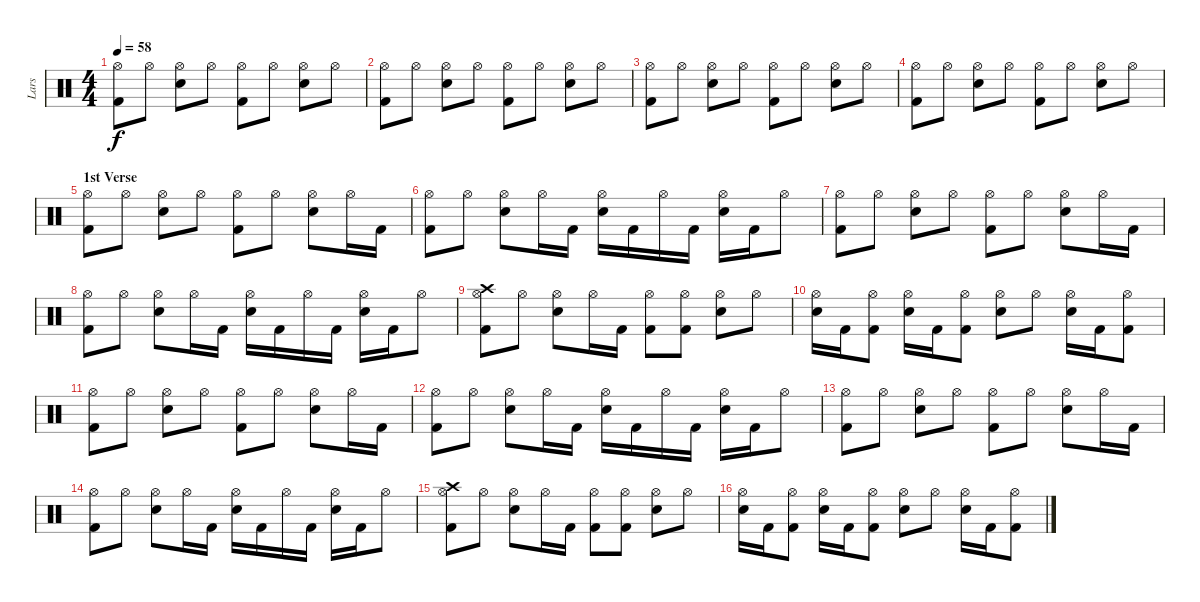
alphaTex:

\track ("Lars " "Lars ") {instrument percussion}
\staff {score}
\articulation defaults
\ts (4 4)
\tempo 58
\clef neutral
\ks c
("Kick (hit) 2" "Hi-Hat (open)").8{dy f} "Hi-Hat (open)".8 ("Snare (hit) 2" "Hi-Hat (open)").8 "Hi-Hat (open)".8 ("Kick (hit) 2" "Hi-Hat (open)").8 "Hi-Hat (open)".8 ("Snare (hit) 2" "Hi-Hat (open)").8 "Hi-Hat (open)".8 |
("Kick (hit) 2" "Hi-Hat (open)").8 "Hi-Hat (open)".8 ("Snare (hit) 2" "Hi-Hat (open)").8 "Hi-Hat (open)".8 ("Kick (hit) 2" "Hi-Hat (open)").8 "Hi-Hat (open)".8 ("Snare (hit) 2" "Hi-Hat (open)").8 "Hi-Hat (open)".8 |
("Kick (hit) 2" "Hi-Hat (open)").8 "Hi-Hat (open)".8 ("Snare (hit) 2" "Hi-Hat (open)").8 "Hi-Hat (open)".8 ("Kick (hit) 2" "Hi-Hat (open)").8 "Hi-Hat (open)".8 ("Snare (hit) 2" "Hi-Hat (open)").8 "Hi-Hat (open)".8 |
("Kick (hit) 2" "Hi-Hat (open)").8 "Hi-Hat (open)".8 ("Snare (hit) 2" "Hi-Hat (open)").8 "Hi-Hat (open)".8 ("Kick (hit) 2" "Hi-Hat (open)").8 "Hi-Hat (open)".8 ("Snare (hit) 2" "Hi-Hat (open)").8 "Hi-Hat (open)".8 |
\section ("" "1st Verse")
("Kick (hit) 2" "Hi-Hat (open)").8 "Hi-Hat (open)".8 ("Snare (hit) 2" "Hi-Hat (open)").8 "Hi-Hat (open)".8 ("Kick (hit) 2" "Hi-Hat (open)").8 "Hi-Hat (open)".8 ("Snare (hit) 2" "Hi-Hat (open)").8 "Hi-Hat (open)".16 "Kick (hit) 2".16 |
("Kick (hit) 2" "Hi-Hat (open)").8 "Hi-Hat (open)".8 ("Snare (hit) 2" "Hi-Hat (open)").8 "Hi-Hat (open)".16 "Kick (hit) 2".16 ("Snare (hit) 2" "Hi-Hat (open)").16 "Kick (hit) 2".16 "Hi-Hat (open)".16 "Kick (hit) 2".16 ("Snare (hit) 2" "Hi-Hat (open)").16 "Kick (hit) 2".16 "Hi-Hat (open)".8 |
("Kick (hit) 2" "Hi-Hat (open)").8 "Hi-Hat (open)".8 ("Snare (hit) 2" "Hi-Hat (open)").8 "Hi-Hat (open)".8 ("Kick (hit) 2" "Hi-Hat (open)").8 "Hi-Hat (open)".8 ("Snare (hit) 2" "Hi-Hat (open)").8 "Hi-Hat (open)".16 "Kick (hit) 2".16 |
("Kick (hit) 2" "Hi-Hat (open)").8 "Hi-Hat (open)".8 ("Snare (hit) 2" "Hi-Hat (open)").8 "Hi-Hat (open)".16 "Kick (hit) 2".16 ("Snare (hit) 2" "Hi-Hat (open)").16 "Kick (hit) 2".16 "Hi-Hat (open)".16 "Kick (hit) 2".16 ("Snare (hit) 2" "Hi-Hat (open)").16 "Kick (hit) 2".16 "Hi-Hat (open)".8 |
("Kick (hit) 2" "Hi-Hat (open)" "Crash high (hit)").8 "Hi-Hat (open)".8 ("Snare (hit) 2" "Hi-Hat (open)").8 "Hi-Hat (open)".16 "Kick (hit) 2".16 ("Kick (hit) 2" "Hi-Hat (open)").8 ("Kick (hit) 2" "Hi-Hat (open)").8 ("Snare (hit) 2" "Hi-Hat (open)").8 "Hi-Hat (open)".8 |
("Snare (hit) 2" "Hi-Hat (open)").16 "Kick (hit) 2".16 ("Kick (hit) 2" "Hi-Hat (open)").8 ("Snare (hit) 2" "Hi-Hat (open)").16 "Kick (hit) 2".16 ("Kick (hit) 2" "Hi-Hat (open)").8 ("Snare (hit) 2" "Hi-Hat (open)").8 "Hi-Hat (open)".8 ("Snare (hit) 2" "Hi-Hat (open)").16 "Kick (hit) 2".16 ("Kick (hit) 2" "Hi-Hat (open)").8 |
("Kick (hit) 2" "Hi-Hat (open)").8 "Hi-Hat (open)".8 ("Snare (hit) 2" "Hi-Hat (open)").8 "Hi-Hat (open)".8 ("Kick (hit) 2" "Hi-Hat (open)").8 "Hi-Hat (open)".8 ("Snare (hit) 2" "Hi-Hat (open)").8 "Hi-Hat (open)".16 "Kick (hit) 2".16 |
("Kick (hit) 2" "Hi-Hat (open)").8 "Hi-Hat (open)".8 ("Snare (hit) 2" "Hi-Hat (open)").8 "Hi-Hat (open)".16 "Kick (hit) 2".16 ("Snare (hit) 2" "Hi-Hat (open)").16 "Kick (hit) 2".16 "Hi-Hat (open)".16 "Kick (hit) 2".16 ("Snare (hit) 2" "Hi-Hat (open)").16 "Kick (hit) 2".16 "Hi-Hat (open)".8 |
("Kick (hit) 2" "Hi-Hat (open)").8 "Hi-Hat (open)".8 ("Snare (hit) 2" "Hi-Hat (open)").8 "Hi-Hat (open)".8 ("Kick (hit) 2" "Hi-Hat (open)").8 "Hi-Hat (open)".8 ("Snare (hit) 2" "Hi-Hat (open)").8 "Hi-Hat (open)".16 "Kick (hit) 2".16 |
("Kick (hit) 2" "Hi-Hat (open)").8 "Hi-Hat (open)".8 ("Snare (hit) 2" "Hi-Hat (open)").8 "Hi-Hat (open)".16 "Kick (hit) 2".16 ("Snare (hit) 2" "Hi-Hat (open)").16 "Kick (hit) 2".16 "Hi-Hat (open)".16 "Kick (hit) 2".16 ("Snare (hit) 2" "Hi-Hat (open)").16 "Kick (hit) 2".16 "Hi-Hat (open)".8 |
("Kick (hit) 2" "Hi-Hat (open)" "Crash high (hit)").8 "Hi-Hat (open)".8 ("Snare (hit) 2" "Hi-Hat (open)").8 "Hi-Hat (open)".16 "Kick (hit) 2".16 ("Kick (hit) 2" "Hi-Hat (open)").8 ("Kick (hit) 2" "Hi-Hat (open)").8 ("Snare (hit) 2" "Hi-Hat (open)").8 "Hi-Hat (open)".8 |
("Snare (hit) 2" "Hi-Hat (open)").16 "Kick (hit) 2".16 ("Kick (hit) 2" "Hi-Hat (open)").8 ("Snare (hit) 2" "Hi-Hat (open)").16 "Kick (hit) 2".16 ("Kick (hit) 2" "Hi-Hat (open)").8 ("Snare (hit) 2" "Hi-Hat (open)").8 "Hi-Hat (open)".8 ("Snare (hit) 2" "Hi-Hat (open)").16 "Kick (hit) 2".16 ("Kick (hit) 2" "Hi-Hat (open)").8
